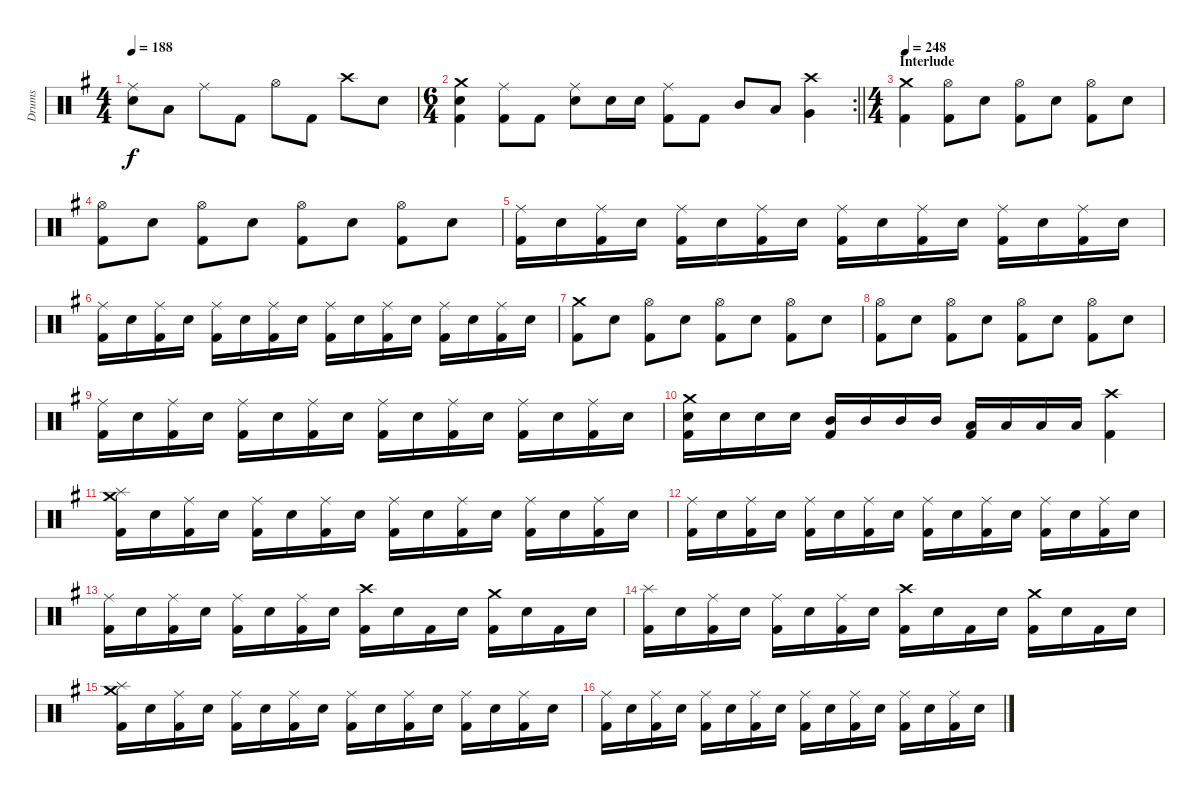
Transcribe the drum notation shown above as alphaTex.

\track ("Drums" "Drums") {instrument percussion}
\staff {score}
\articulation defaults
\ts (4 4)
\tempo 188
\clef neutral
\ks g
("Ride (middle)" "Snare (hit) 2").8{dy f} "Low Tom (hit)".8 "Ride (middle)".8 "Kick (hit) 2".8 "Hi-Hat (open)".8 "Kick (hit) 2".8 "Crash high (hit)".8 "Snare (hit) 2".8 |
\rc 2
\ts (6 4)
\barLineRight lightlight
("Crash medium (hit)" "Snare (hit) 2" "Kick (hit) 2").4 ("Ride (middle)" "Kick (hit) 2").8 "Kick (hit) 2".8 ("Ride (middle)" "Snare (hit) 2").8 "Snare (hit) 2".16 "Snare (hit) 2".16 ("Ride (middle)" "Kick (hit) 2").8 "Kick (hit) 2".8 "Mid Tom (hit)".8 "Low Tom (hit)".8 ("Crash high (hit)" "Very Low Tom (hit)").4 |
\ts (4 4)
\section ("" "Interlude")
\tempo 248
("Crash medium (hit)" "Kick (hit) 2").4 ("Hi-Hat (open)" "Kick (hit) 2").8 "Snare (hit) 2".8 ("Hi-Hat (open)" "Kick (hit) 2").8 "Snare (hit) 2".8 ("Hi-Hat (open)" "Kick (hit) 2").8 "Snare (hit) 2".8 |
("Hi-Hat (open)" "Kick (hit) 2").8 "Snare (hit) 2".8 ("Hi-Hat (open)" "Kick (hit) 2").8 "Snare (hit) 2".8 ("Hi-Hat (open)" "Kick (hit) 2").8 "Snare (hit) 2".8 ("Hi-Hat (open)" "Kick (hit) 2").8 "Snare (hit) 2".8 |
("Ride (middle)" "Kick (hit) 2").16 "Snare (hit) 2".16 ("Ride (middle)" "Kick (hit) 2").16 "Snare (hit) 2".16 ("Ride (middle)" "Kick (hit) 2").16 "Snare (hit) 2".16 ("Ride (middle)" "Kick (hit) 2").16 "Snare (hit) 2".16 ("Ride (middle)" "Kick (hit) 2").16 "Snare (hit) 2".16 ("Ride (middle)" "Kick (hit) 2").16 "Snare (hit) 2".16 ("Ride (middle)" "Kick (hit) 2").16 "Snare (hit) 2".16 ("Ride (middle)" "Kick (hit) 2").16 "Snare (hit) 2".16 |
("Ride (middle)" "Kick (hit) 2").16 "Snare (hit) 2".16 ("Ride (middle)" "Kick (hit) 2").16 "Snare (hit) 2".16 ("Ride (middle)" "Kick (hit) 2").16 "Snare (hit) 2".16 ("Ride (middle)" "Kick (hit) 2").16 "Snare (hit) 2".16 ("Ride (middle)" "Kick (hit) 2").16 "Snare (hit) 2".16 ("Ride (middle)" "Kick (hit) 2").16 "Snare (hit) 2".16 ("Ride (middle)" "Kick (hit) 2").16 "Snare (hit) 2".16 ("Ride (middle)" "Kick (hit) 2").16 "Snare (hit) 2".16 |
("Crash medium (hit)" "Kick (hit) 2").8 "Snare (hit) 2".8 ("Hi-Hat (open)" "Kick (hit) 2").8 "Snare (hit) 2".8 ("Hi-Hat (open)" "Kick (hit) 2").8 "Snare (hit) 2".8 ("Hi-Hat (open)" "Kick (hit) 2").8 "Snare (hit) 2".8 |
("Hi-Hat (open)" "Kick (hit) 2").8 "Snare (hit) 2".8 ("Hi-Hat (open)" "Kick (hit) 2").8 "Snare (hit) 2".8 ("Hi-Hat (open)" "Kick (hit) 2").8 "Snare (hit) 2".8 ("Hi-Hat (open)" "Kick (hit) 2").8 "Snare (hit) 2".8 |
("Ride (middle)" "Kick (hit) 2").16 "Snare (hit) 2".16 ("Ride (middle)" "Kick (hit) 2").16 "Snare (hit) 2".16 ("Ride (middle)" "Kick (hit) 2").16 "Snare (hit) 2".16 ("Ride (middle)" "Kick (hit) 2").16 "Snare (hit) 2".16 ("Ride (middle)" "Kick (hit) 2").16 "Snare (hit) 2".16 ("Ride (middle)" "Kick (hit) 2").16 "Snare (hit) 2".16 ("Ride (middle)" "Kick (hit) 2").16 "Snare (hit) 2".16 ("Ride (middle)" "Kick (hit) 2").16 "Snare (hit) 2".16 |
("Crash medium (hit)" "Snare (hit) 2" "Kick (hit) 2").16 "Snare (hit) 2".16 "Snare (hit) 2".16 "Snare (hit) 2".16 ("Mid Tom (hit)" "Kick (hit) 2").16 "Mid Tom (hit)".16 "Mid Tom (hit)".16 "Mid Tom (hit)".16 ("Low Tom (hit)" "Kick (hit) 2").16 "Low Tom (hit)".16 "Low Tom (hit)".16 "Low Tom (hit)".16 ("Crash high (hit)" "Kick (hit) 2").4 |
("Crash medium (hit)" "Splash (hit)" "Kick (hit) 2").16 "Snare (hit) 2".16 ("Ride (middle)" "Kick (hit) 2").16 "Snare (hit) 2".16 ("Ride (middle)" "Kick (hit) 2").16 "Snare (hit) 2".16 ("Ride (middle)" "Kick (hit) 2").16 "Snare (hit) 2".16 ("Ride (middle)" "Kick (hit) 2").16 "Snare (hit) 2".16 ("Ride (middle)" "Kick (hit) 2").16 "Snare (hit) 2".16 ("Ride (middle)" "Kick (hit) 2").16 "Snare (hit) 2".16 ("Ride (middle)" "Kick (hit) 2").16 "Snare (hit) 2".16 |
("Ride (middle)" "Kick (hit) 2").16 "Snare (hit) 2".16 ("Ride (middle)" "Kick (hit) 2").16 "Snare (hit) 2".16 ("Ride (middle)" "Kick (hit) 2").16 "Snare (hit) 2".16 ("Ride (middle)" "Kick (hit) 2").16 "Snare (hit) 2".16 ("Ride (middle)" "Kick (hit) 2").16 "Snare (hit) 2".16 ("Ride (middle)" "Kick (hit) 2").16 "Snare (hit) 2".16 ("Ride (middle)" "Kick (hit) 2").16 "Snare (hit) 2".16 ("Ride (middle)" "Kick (hit) 2").16 "Snare (hit) 2".16 |
("Ride (middle)" "Kick (hit) 2").16 "Snare (hit) 2".16 ("Ride (middle)" "Kick (hit) 2").16 "Snare (hit) 2".16 ("Ride (middle)" "Kick (hit) 2").16 "Snare (hit) 2".16 ("Ride (middle)" "Kick (hit) 2").16 "Snare (hit) 2".16 ("Crash high (hit)" "Kick (hit) 2").16 "Snare (hit) 2".16 "Kick (hit) 2".16 "Snare (hit) 2".16 ("Crash medium (hit)" "Kick (hit) 2").16 "Snare (hit) 2".16 "Kick (hit) 2".16 "Snare (hit) 2".16 |
("Splash (hit)" "Kick (hit) 2").16 "Snare (hit) 2".16 ("Ride (middle)" "Kick (hit) 2").16 "Snare (hit) 2".16 ("Ride (middle)" "Kick (hit) 2").16 "Snare (hit) 2".16 ("Ride (middle)" "Kick (hit) 2").16 "Snare (hit) 2".16 ("Crash high (hit)" "Kick (hit) 2").16 "Snare (hit) 2".16 "Kick (hit) 2".16 "Snare (hit) 2".16 ("Crash medium (hit)" "Kick (hit) 2").16 "Snare (hit) 2".16 "Kick (hit) 2".16 "Snare (hit) 2".16 |
("Crash medium (hit)" "Splash (hit)" "Kick (hit) 2").16 "Snare (hit) 2".16 ("Ride (middle)" "Kick (hit) 2").16 "Snare (hit) 2".16 ("Ride (middle)" "Kick (hit) 2").16 "Snare (hit) 2".16 ("Ride (middle)" "Kick (hit) 2").16 "Snare (hit) 2".16 ("Ride (middle)" "Kick (hit) 2").16 "Snare (hit) 2".16 ("Ride (middle)" "Kick (hit) 2").16 "Snare (hit) 2".16 ("Ride (middle)" "Kick (hit) 2").16 "Snare (hit) 2".16 ("Ride (middle)" "Kick (hit) 2").16 "Snare (hit) 2".16 |
("Ride (middle)" "Kick (hit) 2").16 "Snare (hit) 2".16 ("Ride (middle)" "Kick (hit) 2").16 "Snare (hit) 2".16 ("Ride (middle)" "Kick (hit) 2").16 "Snare (hit) 2".16 ("Ride (middle)" "Kick (hit) 2").16 "Snare (hit) 2".16 ("Ride (middle)" "Kick (hit) 2").16 "Snare (hit) 2".16 ("Ride (middle)" "Kick (hit) 2").16 "Snare (hit) 2".16 ("Ride (middle)" "Kick (hit) 2").16 "Snare (hit) 2".16 ("Ride (middle)" "Kick (hit) 2").16 "Snare (hit) 2".16
